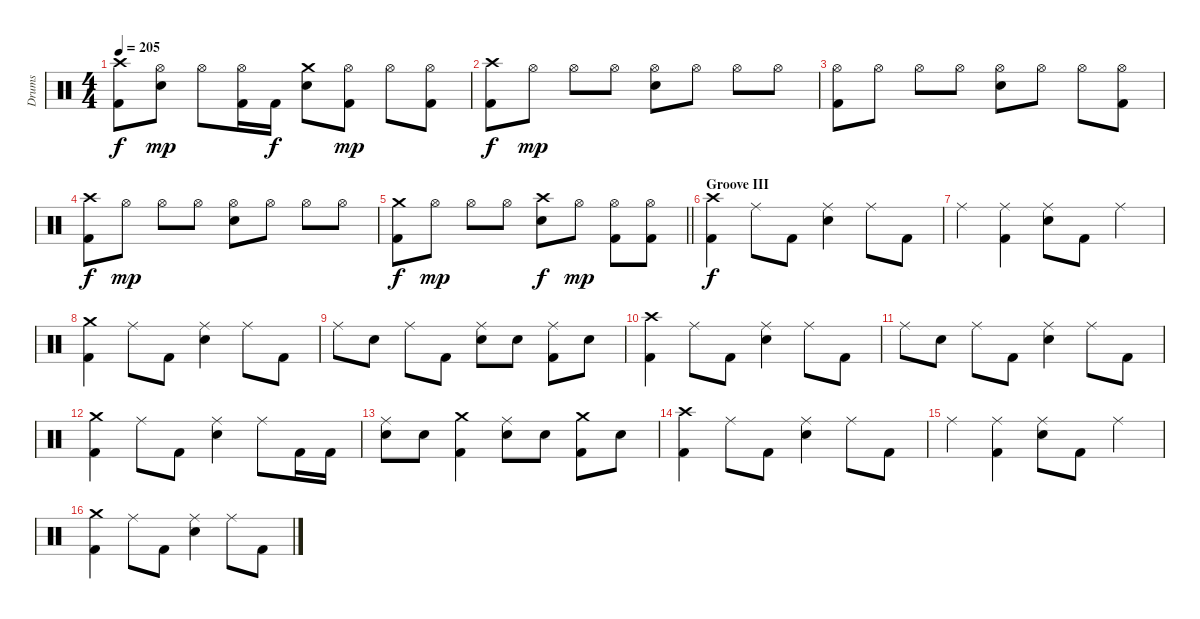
\track ("Drums" "Drums") {instrument percussion}
\staff {score}
\articulation defaults
\ts (4 4)
\tempo 205
\clef neutral
\ks c
("Crash high (hit)" "Kick (hit) 2").8{dy f} ("Hi-Hat (open)" "Snare (hit) 2").8{dy mp} "Hi-Hat (open)".8 ("Hi-Hat (open)" "Kick (hit) 2").16 "Kick (hit) 2".16{dy f} ("Crash medium (hit)" "Snare (hit) 2").8 ("Hi-Hat (open)" "Kick (hit) 2").8{dy mp} "Hi-Hat (open)".8 ("Hi-Hat (open)" "Kick (hit) 2").8 |
("Crash high (hit)" "Kick (hit) 2").8{dy f} "Hi-Hat (open)".8{dy mp} "Hi-Hat (open)".8 "Hi-Hat (open)".8 ("Hi-Hat (open)" "Snare (hit) 2").8 "Hi-Hat (open)".8 "Hi-Hat (open)".8 "Hi-Hat (open)".8 |
("Hi-Hat (open)" "Kick (hit) 2").8 "Hi-Hat (open)".8 "Hi-Hat (open)".8 "Hi-Hat (open)".8 ("Hi-Hat (open)" "Snare (hit) 2").8 "Hi-Hat (open)".8 "Hi-Hat (open)".8 ("Hi-Hat (open)" "Kick (hit) 2").8 |
("Crash high (hit)" "Kick (hit) 2").8{dy f} "Hi-Hat (open)".8{dy mp} "Hi-Hat (open)".8 "Hi-Hat (open)".8 ("Hi-Hat (open)" "Snare (hit) 2").8 "Hi-Hat (open)".8 "Hi-Hat (open)".8 "Hi-Hat (open)".8 |
\barLineRight lightlight
("Crash medium (hit)" "Kick (hit) 2").8{dy f} "Hi-Hat (open)".8{dy mp} "Hi-Hat (open)".8 "Hi-Hat (open)".8 ("Crash high (hit)" "Snare (hit) 2").8{dy f} "Hi-Hat (open)".8{dy mp} ("Hi-Hat (open)" "Kick (hit) 2").8 ("Hi-Hat (open)" "Kick (hit) 2").8 |
\section ("" "Groove III")
("Crash high (hit)" "Kick (hit) 2").4{dy f} "Ride (middle)".8 "Kick (hit) 2".8 ("Ride (middle)" "Snare (hit) 2").4 "Ride (middle)".8 "Kick (hit) 2".8 |
"Ride (middle)".4 ("Ride (middle)" "Kick (hit) 2").4 ("Ride (middle)" "Snare (hit) 2").8 "Kick (hit) 2".8 "Ride (middle)".4 |
("Crash medium (hit)" "Kick (hit) 2").4 "Ride (middle)".8 "Kick (hit) 2".8 ("Ride (middle)" "Snare (hit) 2").4 "Ride (middle)".8 "Kick (hit) 2".8 |
"Ride (middle)".8 "Snare (hit) 2".8 "Ride (middle)".8 "Kick (hit) 2".8 ("Ride (middle)" "Snare (hit) 2").8 "Snare (hit) 2".8 ("Ride (middle)" "Kick (hit) 2").8 "Snare (hit) 2".8 |
("Crash high (hit)" "Kick (hit) 2").4 "Ride (middle)".8 "Kick (hit) 2".8 ("Ride (middle)" "Snare (hit) 2").4 "Ride (middle)".8 "Kick (hit) 2".8 |
"Ride (middle)".8 "Snare (hit) 2".8 "Ride (middle)".8 "Kick (hit) 2".8 ("Ride (middle)" "Snare (hit) 2").4 "Ride (middle)".8 "Kick (hit) 2".8 |
("Crash medium (hit)" "Kick (hit) 2").4 "Ride (middle)".8 "Kick (hit) 2".8 ("Ride (middle)" "Snare (hit) 2").4 "Ride (middle)".8 "Kick (hit) 2".16 "Kick (hit) 2".16 |
("Ride (middle)" "Snare (hit) 2").8 "Snare (hit) 2".8 ("Crash medium (hit)" "Kick (hit) 2").4 ("Ride (middle)" "Snare (hit) 2").8 "Snare (hit) 2".8 ("Crash medium (hit)" "Kick (hit) 2").8 "Snare (hit) 2".8 |
("Crash high (hit)" "Kick (hit) 2").4 "Ride (middle)".8 "Kick (hit) 2".8 ("Ride (middle)" "Snare (hit) 2").4 "Ride (middle)".8 "Kick (hit) 2".8 |
"Ride (middle)".4 ("Ride (middle)" "Kick (hit) 2").4 ("Ride (middle)" "Snare (hit) 2").8 "Kick (hit) 2".8 "Ride (middle)".4 |
("Crash medium (hit)" "Kick (hit) 2").4 "Ride (middle)".8 "Kick (hit) 2".8 ("Ride (middle)" "Snare (hit) 2").4 "Ride (middle)".8 "Kick (hit) 2".8
